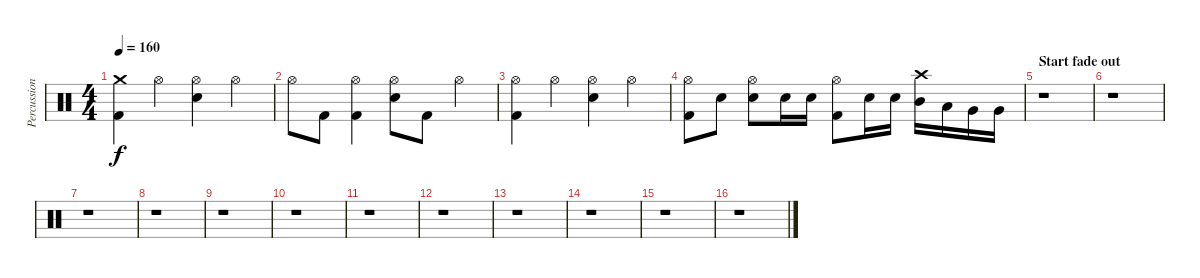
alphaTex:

\track ("Percussion" "Percussion") {instrument percussion}
\staff {score}
\articulation defaults
\ts (4 4)
\tempo 160
\clef neutral
\ks c
("Crash medium (hit)" "Kick (hit) 2").4{dy f} "Hi-Hat (open)".4 ("Hi-Hat (open)" "Snare (hit) 2").4 "Hi-Hat (open)".4 |
"Hi-Hat (open)".8 "Kick (hit) 2".8 ("Hi-Hat (open)" "Kick (hit) 2").4 ("Hi-Hat (open)" "Snare (hit) 2").8 "Kick (hit) 2".8 "Hi-Hat (open)".4 |
("Hi-Hat (open)" "Kick (hit) 2").4 "Hi-Hat (open)".4 ("Hi-Hat (open)" "Snare (hit) 2").4 "Hi-Hat (open)".4 |
("Hi-Hat (open)" "Kick (hit) 2").8 "Snare (hit) 2".8 ("Hi-Hat (open)" "Snare (hit) 2").8 "Snare (hit) 2".16 "Snare (hit) 2".16 ("Hi-Hat (open)" "Kick (hit) 2").8 "Snare (hit) 2".16 "Snare (hit) 2".16 ("Crash high (hit)" "Mid Tom (hit)").16 "Low Tom (hit)".16 "Very Low Tom (hit)".16 "Very Low Tom (hit)".16 |
\section ("" "Start fade out")
r.1 |
r.1 |
r.1 |
r.1 |
r.1 |
r.1 |
r.1 |
r.1 |
r.1 |
r.1 |
r.1 |
r.1
